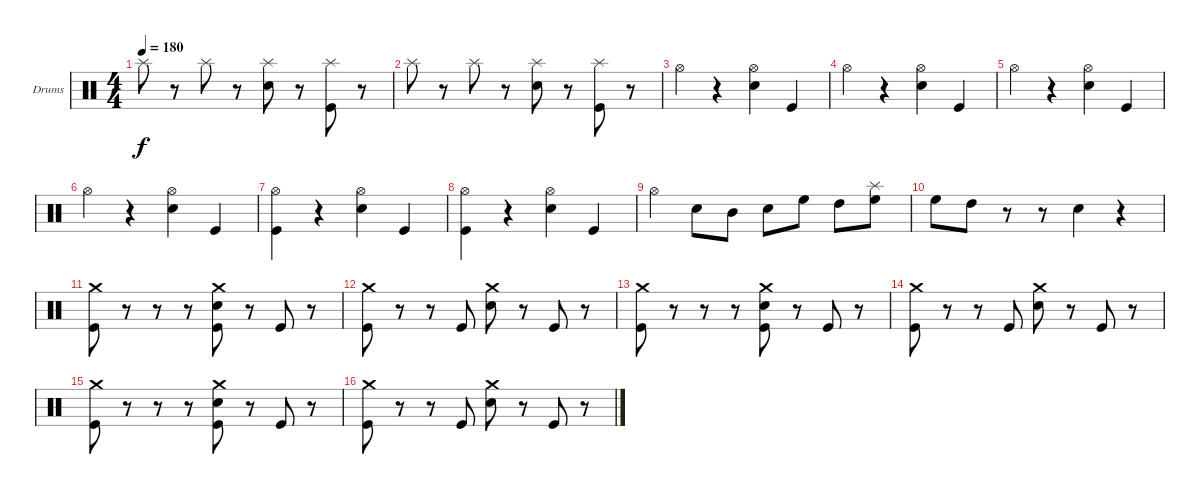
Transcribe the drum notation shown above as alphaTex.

\defaultSystemsLayout 4
\bracketExtendMode groupsimilarinstruments
\firstSystemTrackNameOrientation horizontal
\otherSystemsTrackNameOrientation horizontal
\track ("Drumkit" "Drums") {instrument percussion}
\staff {score}
\articulation defaults
\ts (4 4)
\tempo 180
\clef neutral
\ks c "Splash (hit)".8{dy f}
r.8 "Splash (hit)".8 r.8 ("Splash (hit)" "Snare (hit) 2").8 r.8 ("Splash (hit)" "Kick (hit)").8 r.8 |
"Splash (hit)".8 r.8 "Splash (hit)".8 r.8 ("Splash (hit)" "Snare (hit) 2").8 r.8 ("Splash (hit)" "Kick (hit)").8 r.8 |
"Hi-Hat (open)".4 r.4 ("Hi-Hat (open)" "Snare (hit) 2").4 "Kick (hit)".4 |
"Hi-Hat (open)".4 r.4 ("Hi-Hat (open)" "Snare (hit) 2").4 "Kick (hit)".4 |
"Hi-Hat (open)".4 r.4 ("Hi-Hat (open)" "Snare (hit) 2").4 "Kick (hit)".4 |
"Hi-Hat (open)".4 r.4 ("Hi-Hat (open)" "Snare (hit) 2").4 "Kick (hit)".4 |
("Hi-Hat (open)" "Kick (hit)").4 r.4 ("Hi-Hat (open)" "Snare (hit) 2").4 "Kick (hit)".4 |
("Hi-Hat (open)" "Kick (hit)").4 r.4 ("Hi-Hat (open)" "Snare (hit) 2").4 "Kick (hit)".4 |
"Hi-Hat (open)".4 "Snare (hit) 2".8 "Mid Tom (hit)".8 "Snare (hit) 2".8 "High Floor Tom (hit)".8 "High Tom (hit)".8 ("Splash (hit)" "High Floor Tom (hit)").8 |
"High Floor Tom (hit)".8 "High Tom (hit)".8 r.8 r.8 "Snare (hit) 2".4 r.4 |
("Crash medium (hit)" "Kick (hit)").8 r.8 r.8 r.8 ("Crash medium (hit)" "Snare (hit) 2" "Kick (hit)").8 r.8 "Kick (hit)".8 r.8 |
("Crash medium (hit)" "Kick (hit)").8 r.8 r.8 "Kick (hit)".8 ("Crash medium (hit)" "Snare (hit) 2").8 r.8 "Kick (hit)".8 r.8 |
("Crash medium (hit)" "Kick (hit)").8 r.8 r.8 r.8 ("Crash medium (hit)" "Snare (hit) 2" "Kick (hit)").8 r.8 "Kick (hit)".8 r.8 |
("Crash medium (hit)" "Kick (hit)").8 r.8 r.8 "Kick (hit)".8 ("Crash medium (hit)" "Snare (hit) 2").8 r.8 "Kick (hit)".8 r.8 |
("Crash medium (hit)" "Kick (hit)").8 r.8 r.8 r.8 ("Crash medium (hit)" "Snare (hit) 2" "Kick (hit)").8 r.8 "Kick (hit)".8 r.8 |
("Crash medium (hit)" "Kick (hit)").8 r.8 r.8 "Kick (hit)".8 ("Crash medium (hit)" "Snare (hit) 2").8 r.8 "Kick (hit)".8 r.8
